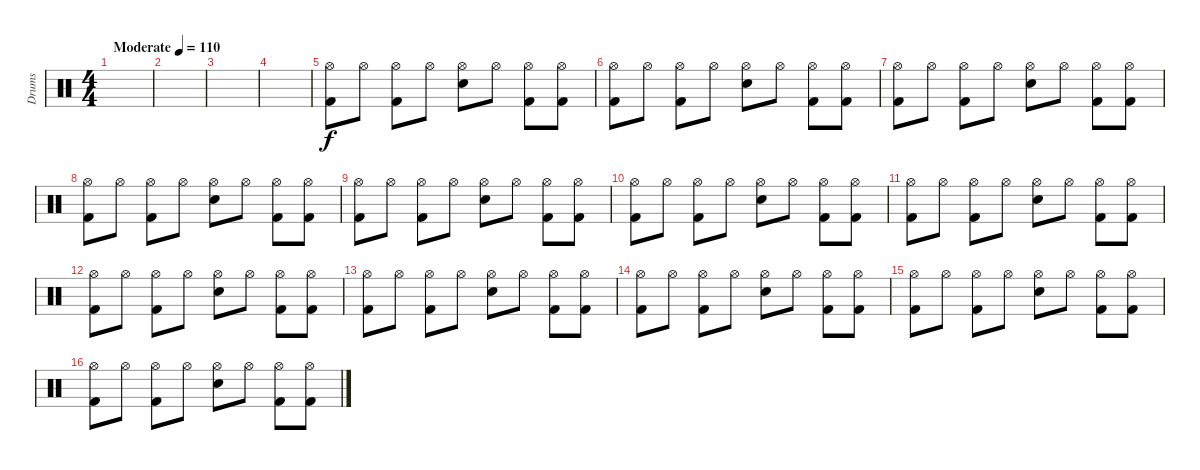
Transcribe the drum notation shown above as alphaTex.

\track ("Drums" "Drums") {instrument percussion}
\staff {score}
\articulation defaults
\ts (4 4)
\tempo (110 "Moderate")
\clef neutral
\ks c
|
|
|
|
("Hi-Hat (open)" "Kick (hit) 2").8 "Hi-Hat (open)".8 ("Hi-Hat (open)" "Kick (hit) 2").8 "Hi-Hat (open)".8 ("Hi-Hat (open)" "Electric Snare (hit)").8 "Hi-Hat (open)".8 ("Hi-Hat (open)" "Kick (hit) 2").8 ("Hi-Hat (open)" "Kick (hit) 2").8 |
("Hi-Hat (open)" "Kick (hit) 2").8 "Hi-Hat (open)".8 ("Hi-Hat (open)" "Kick (hit) 2").8 "Hi-Hat (open)".8 ("Hi-Hat (open)" "Electric Snare (hit)").8 "Hi-Hat (open)".8 ("Hi-Hat (open)" "Kick (hit) 2").8 ("Hi-Hat (open)" "Kick (hit) 2").8 |
("Hi-Hat (open)" "Kick (hit) 2").8 "Hi-Hat (open)".8 ("Hi-Hat (open)" "Kick (hit) 2").8 "Hi-Hat (open)".8 ("Hi-Hat (open)" "Electric Snare (hit)").8 "Hi-Hat (open)".8 ("Hi-Hat (open)" "Kick (hit) 2").8 ("Hi-Hat (open)" "Kick (hit) 2").8 |
("Hi-Hat (open)" "Kick (hit) 2").8 "Hi-Hat (open)".8 ("Hi-Hat (open)" "Kick (hit) 2").8 "Hi-Hat (open)".8 ("Hi-Hat (open)" "Electric Snare (hit)").8 "Hi-Hat (open)".8 ("Hi-Hat (open)" "Kick (hit) 2").8 ("Hi-Hat (open)" "Kick (hit) 2").8 |
("Hi-Hat (open)" "Kick (hit) 2").8 "Hi-Hat (open)".8 ("Hi-Hat (open)" "Kick (hit) 2").8 "Hi-Hat (open)".8 ("Hi-Hat (open)" "Electric Snare (hit)").8 "Hi-Hat (open)".8 ("Hi-Hat (open)" "Kick (hit) 2").8 ("Hi-Hat (open)" "Kick (hit) 2").8 |
("Hi-Hat (open)" "Kick (hit) 2").8 "Hi-Hat (open)".8 ("Hi-Hat (open)" "Kick (hit) 2").8 "Hi-Hat (open)".8 ("Hi-Hat (open)" "Electric Snare (hit)").8 "Hi-Hat (open)".8 ("Hi-Hat (open)" "Kick (hit) 2").8 ("Hi-Hat (open)" "Kick (hit) 2").8 |
("Hi-Hat (open)" "Kick (hit) 2").8 "Hi-Hat (open)".8 ("Hi-Hat (open)" "Kick (hit) 2").8 "Hi-Hat (open)".8 ("Hi-Hat (open)" "Electric Snare (hit)").8 "Hi-Hat (open)".8 ("Hi-Hat (open)" "Kick (hit) 2").8 ("Hi-Hat (open)" "Kick (hit) 2").8 |
("Hi-Hat (open)" "Kick (hit) 2").8 "Hi-Hat (open)".8 ("Hi-Hat (open)" "Kick (hit) 2").8 "Hi-Hat (open)".8 ("Hi-Hat (open)" "Electric Snare (hit)").8 "Hi-Hat (open)".8 ("Hi-Hat (open)" "Kick (hit) 2").8 ("Hi-Hat (open)" "Kick (hit) 2").8 |
("Hi-Hat (open)" "Kick (hit) 2").8 "Hi-Hat (open)".8 ("Hi-Hat (open)" "Kick (hit) 2").8 "Hi-Hat (open)".8 ("Hi-Hat (open)" "Electric Snare (hit)").8 "Hi-Hat (open)".8 ("Hi-Hat (open)" "Kick (hit) 2").8 ("Hi-Hat (open)" "Kick (hit) 2").8 |
("Hi-Hat (open)" "Kick (hit) 2").8 "Hi-Hat (open)".8 ("Hi-Hat (open)" "Kick (hit) 2").8 "Hi-Hat (open)".8 ("Hi-Hat (open)" "Electric Snare (hit)").8 "Hi-Hat (open)".8 ("Hi-Hat (open)" "Kick (hit) 2").8 ("Hi-Hat (open)" "Kick (hit) 2").8 |
("Hi-Hat (open)" "Kick (hit) 2").8 "Hi-Hat (open)".8 ("Hi-Hat (open)" "Kick (hit) 2").8 "Hi-Hat (open)".8 ("Hi-Hat (open)" "Electric Snare (hit)").8 "Hi-Hat (open)".8 ("Hi-Hat (open)" "Kick (hit) 2").8 ("Hi-Hat (open)" "Kick (hit) 2").8 |
("Hi-Hat (open)" "Kick (hit) 2").8 "Hi-Hat (open)".8 ("Hi-Hat (open)" "Kick (hit) 2").8 "Hi-Hat (open)".8 ("Hi-Hat (open)" "Electric Snare (hit)").8 "Hi-Hat (open)".8 ("Hi-Hat (open)" "Kick (hit) 2").8 ("Hi-Hat (open)" "Kick (hit) 2").8
